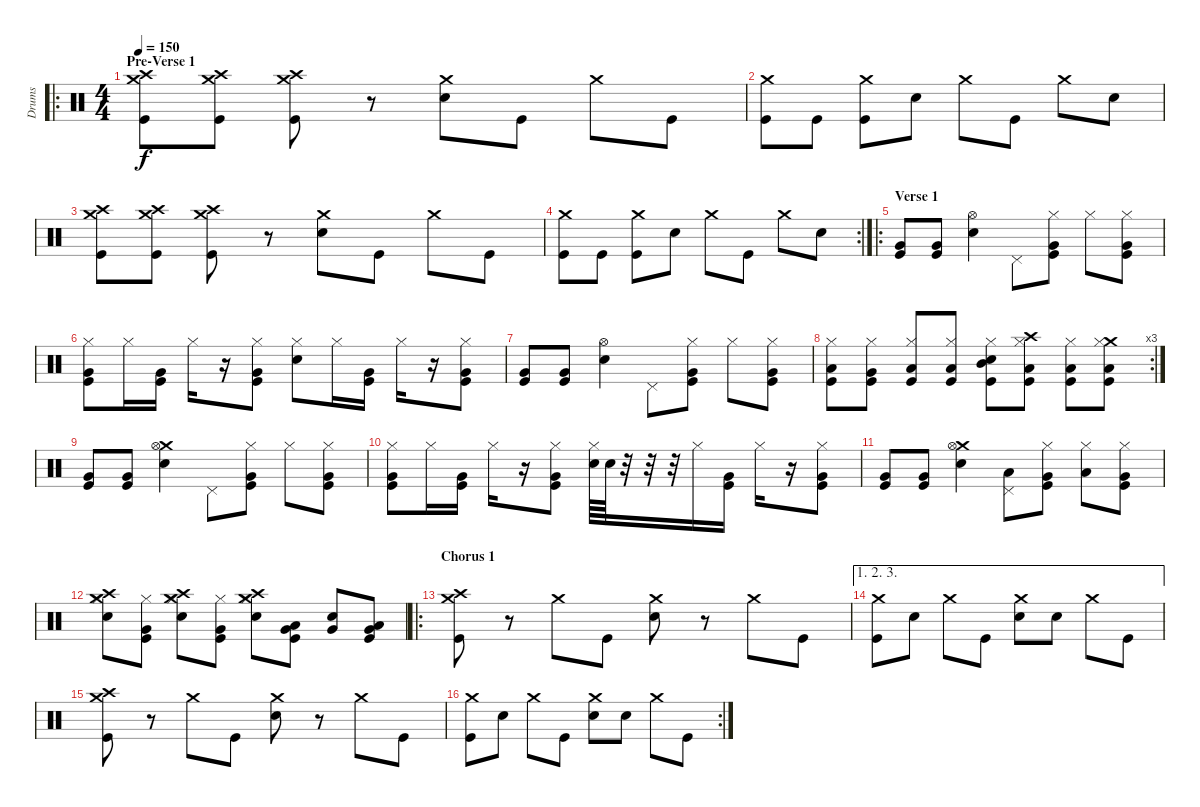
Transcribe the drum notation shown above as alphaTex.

\track ("Drums" "Drums") {instrument percussion}
\staff {score}
\articulation defaults
\ro
\ts (4 4)
\section ("" "Pre-Verse 1")
\tempo 150
\clef neutral
\ks c
("Crash medium (hit)" "Crash high (hit)" "Kick (hit)").8{dy f} ("Crash medium (hit)" "Crash high (hit)" "Kick (hit)").8 ("Crash medium (hit)" "Crash high (hit)" "Kick (hit)").8 r.8 ("Crash medium (hit)" "Electric Snare (hit)").8 "Kick (hit)".8 "Crash medium (hit)".8 "Kick (hit)".8 |
("Crash medium (hit)" "Kick (hit)").8 "Kick (hit)".8 ("Crash medium (hit)" "Kick (hit)").8 "Electric Snare (hit)".8 "Crash medium (hit)".8 "Kick (hit)".8 "Crash medium (hit)".8 "Electric Snare (hit)".8 |
("Crash medium (hit)" "Crash high (hit)" "Kick (hit)").8 ("Crash medium (hit)" "Crash high (hit)" "Kick (hit)").8 ("Crash medium (hit)" "Crash high (hit)" "Kick (hit)").8 r.8 ("Crash medium (hit)" "Electric Snare (hit)").8 "Kick (hit)".8 "Crash medium (hit)".8 "Kick (hit)".8 |
\rc 2
("Crash medium (hit)" "Kick (hit)").8 "Kick (hit)".8 ("Crash medium (hit)" "Kick (hit)").8 "Electric Snare (hit)".8 "Crash medium (hit)".8 "Kick (hit)".8 "Crash medium (hit)".8 "Electric Snare (hit)".8 |
\ro
\section ("" "Verse 1")
("Very Low Tom (hit)" "Kick (hit)").8 ("Very Low Tom (hit)" "Kick (hit)").8 ("Hi-Hat (open)" "Electric Snare (hit)").4 "Pedal Hi-Hat (hit)".8 ("Hi-Hat (closed)" "Very Low Tom (hit)" "Kick (hit)").8 "Hi-Hat (closed)".8 ("Hi-Hat (closed)" "Very Low Tom (hit)" "Kick (hit)").8 |
("Hi-Hat (closed)" "Very Low Tom (hit)" "Kick (hit)").8 "Hi-Hat (closed)".16 ("Very Low Tom (hit)" "Kick (hit)").16 "Hi-Hat (closed)".16 r.16 ("Hi-Hat (closed)" "Very Low Tom (hit)" "Kick (hit)").8 ("Hi-Hat (closed)" "Electric Snare (hit)").8 "Hi-Hat (closed)".16 ("Very Low Tom (hit)" "Kick (hit)").16 "Hi-Hat (closed)".16 r.16 ("Hi-Hat (closed)" "Very Low Tom (hit)" "Kick (hit)").8 |
("Very Low Tom (hit)" "Kick (hit)").8 ("Very Low Tom (hit)" "Kick (hit)").8 ("Hi-Hat (open)" "Electric Snare (hit)").4 "Pedal Hi-Hat (hit)".8 ("Hi-Hat (closed)" "Very Low Tom (hit)" "Kick (hit)").8 "Hi-Hat (closed)".8 ("Hi-Hat (closed)" "Very Low Tom (hit)" "Kick (hit)").8 |
\rc 3
("Hi-Hat (closed)" "Low Tom (hit)" "Kick (hit)").8 ("Hi-Hat (closed)" "Very Low Tom (hit)" "Kick (hit)").8 ("Hi-Hat (closed)" "Low Floor Tom (hit)" "Kick (hit)").8 ("Hi-Hat (closed)" "Low Floor Tom (hit)" "Kick (hit)").8 ("Hi-Hat (closed)" "Electric Snare (hit)" "Mid Tom (hit)" "Kick (hit)").8 ("Crash high (hit)" "Hi-Hat (closed)" "Low Tom (hit)" "Kick (hit)").8 ("Hi-Hat (closed)" "Low Floor Tom (hit)" "Kick (hit)").8 ("Crash medium (hit)" "Hi-Hat (closed)" "Low Floor Tom (hit)" "Kick (hit)").8 |
("Very Low Tom (hit)" "Kick (hit)").8 ("Very Low Tom (hit)" "Kick (hit)").8 ("Crash medium (hit)" "Hi-Hat (open)" "Electric Snare (hit)").4 "Pedal Hi-Hat (hit)".8 ("Hi-Hat (closed)" "Very Low Tom (hit)" "Kick (hit)").8 "Hi-Hat (closed)".8 ("Hi-Hat (closed)" "Very Low Tom (hit)" "Kick (hit)").8 |
("Hi-Hat (closed)" "Very Low Tom (hit)" "Kick (hit)").8 "Hi-Hat (closed)".16 ("Very Low Tom (hit)" "Kick (hit)").16 "Hi-Hat (closed)".16 r.16 ("Hi-Hat (closed)" "Very Low Tom (hit)" "Kick (hit)").8 ("Hi-Hat (closed)" "Electric Snare (hit)").64 "Electric Snare (hit)".64 r.32 r.32 r.32 "Hi-Hat (closed)".16 ("Very Low Tom (hit)" "Kick (hit)").16 "Hi-Hat (closed)".16 r.16 ("Hi-Hat (closed)" "Very Low Tom (hit)" "Kick (hit)").8 |
("Very Low Tom (hit)" "Kick (hit)").8 ("Very Low Tom (hit)" "Kick (hit)").8 ("Crash medium (hit)" "Hi-Hat (open)" "Electric Snare (hit)").4 ("Pedal Hi-Hat (hit)" "Low Tom (hit)").8 ("Hi-Hat (closed)" "Very Low Tom (hit)" "Kick (hit)").8 ("Hi-Hat (closed)" "Low Tom (hit)").8 ("Hi-Hat (closed)" "Very Low Tom (hit)" "Kick (hit)").8 |
("Crash medium (hit)" "Crash high (hit)" "Hi-Hat (closed)" "Electric Snare (hit)").8 ("Hi-Hat (closed)" "Very Low Tom (hit)" "Kick (hit)").8 ("Crash medium (hit)" "Crash high (hit)" "Hi-Hat (closed)" "Electric Snare (hit)").8 ("Hi-Hat (closed)" "Very Low Tom (hit)" "Kick (hit)").8 ("Crash medium (hit)" "Crash high (hit)" "Hi-Hat (closed)" "Electric Snare (hit)").8 ("Low Tom (hit)" "Very Low Tom (hit)" "Kick (hit)").8 ("Very Low Tom (hit)" "Electric Snare (hit)").8 ("Low Floor Tom (hit)" "Very Low Tom (hit)" "Kick (hit)").8 |
\ro
\section ("" "Chorus 1")
("Crash medium (hit)" "Crash high (hit)" "Kick (hit)").8 r.8 "Crash medium (hit)".8 "Kick (hit)".8 ("Crash medium (hit)" "Electric Snare (hit)").8 r.8 "Crash medium (hit)".8 "Kick (hit)".8 |
\ae (1 2 3)
("Crash medium (hit)" "Kick (hit)").8 "Electric Snare (hit)".8 "Crash medium (hit)".8 "Kick (hit)".8 ("Crash medium (hit)" "Electric Snare (hit)").8 "Electric Snare (hit)".8 "Crash medium (hit)".8 "Kick (hit)".8 |
("Crash medium (hit)" "Crash high (hit)" "Kick (hit)").8 r.8 "Crash medium (hit)".8 "Kick (hit)".8 ("Crash medium (hit)" "Electric Snare (hit)").8 r.8 "Crash medium (hit)".8 "Kick (hit)".8 |
\rc 2
("Crash medium (hit)" "Kick (hit)").8 "Electric Snare (hit)".8 "Crash medium (hit)".8 "Kick (hit)".8 ("Crash medium (hit)" "Electric Snare (hit)").8 "Electric Snare (hit)".8 "Crash medium (hit)".8 "Kick (hit)".8
